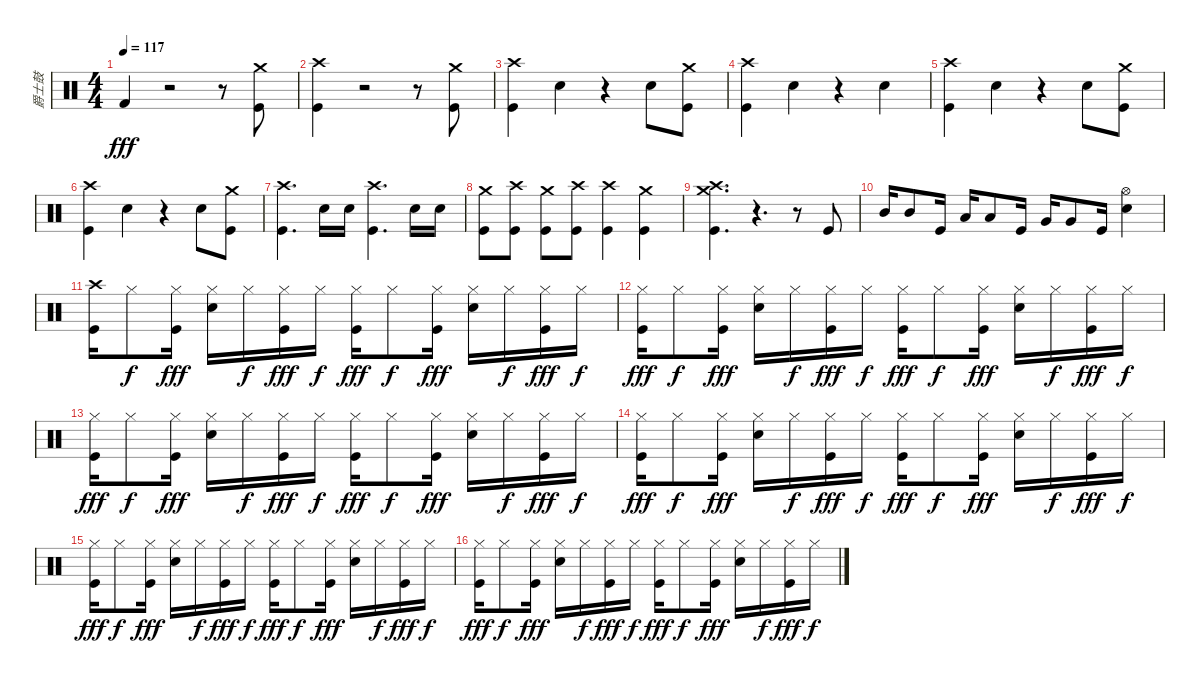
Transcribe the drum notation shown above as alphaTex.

\track ("爵士鼓" "爵士鼓") {instrument percussion}
\staff {score}
\articulation defaults
\ts (4 4)
\tempo 117
\clef neutral
\ks c "Kick (hit) 2".4{dy fff}
r.2 r.8 ("Kick (hit)" "Crash medium (hit)").8 |
("Kick (hit)" "Crash high (hit)").4 r.2 r.8 ("Kick (hit)" "Crash medium (hit)").8 |
("Kick (hit)" "Crash high (hit)").4 "Snare (hit) 2".4 r.4 "Snare (hit) 2".8 ("Kick (hit)" "Crash medium (hit)").8 |
("Kick (hit)" "Crash high (hit)").4 "Snare (hit) 2".4 r.4 "Snare (hit) 2".4 |
("Kick (hit)" "Crash high (hit)").4 "Snare (hit) 2".4 r.4 "Snare (hit) 2".8 ("Kick (hit)" "Crash medium (hit)").8 |
("Kick (hit)" "Crash high (hit)").4 "Snare (hit) 2".4 r.4 "Snare (hit) 2".8 ("Kick (hit)" "Crash medium (hit)").8 |
("Kick (hit)" "Crash high (hit)").4{d} "Snare (hit) 2".16 "Snare (hit) 2".16 ("Kick (hit)" "Crash high (hit)").4{d} "Snare (hit) 2".16 "Snare (hit) 2".16 |
("Kick (hit)" "Crash medium (hit)").8 ("Kick (hit)" "Crash high (hit)").8 ("Kick (hit)" "Crash medium (hit)").8 ("Kick (hit)" "Crash high (hit)").8 ("Kick (hit)" "Crash high (hit)").4 ("Kick (hit)" "Crash medium (hit)").4 |
("Kick (hit)" "Crash high (hit)" "Crash medium (hit)").4{d} r.4{d} r.8 "Kick (hit)".8 |
"Mid Tom (hit)".16 "Mid Tom (hit)".8 "Kick (hit)".16 "Low Tom (hit)".16 "Low Tom (hit)".8 "Kick (hit)".16 "Very Low Tom (hit)".16 "Very Low Tom (hit)".8 "Kick (hit)".16 ("Hi-Hat (open)" "Snare (hit) 2").4 |
("Kick (hit)" "Crash high (hit)").16 "Hi-Hat (closed)".8{dy f} ("Kick (hit)" "Hi-Hat (closed)").16{dy fff} ("Snare (hit) 2" "Hi-Hat (closed)").16 "Hi-Hat (closed)".16{dy f} ("Kick (hit)" "Hi-Hat (closed)").16{dy fff} "Hi-Hat (closed)".16{dy f} ("Kick (hit)" "Hi-Hat (closed)").16{dy fff} "Hi-Hat (closed)".8{dy f} ("Kick (hit)" "Hi-Hat (closed)").16{dy fff} ("Snare (hit) 2" "Hi-Hat (closed)").16 "Hi-Hat (closed)".16{dy f} ("Kick (hit)" "Hi-Hat (closed)").16{dy fff} "Hi-Hat (closed)".16{dy f} |
("Kick (hit)" "Hi-Hat (closed)").16{dy fff} "Hi-Hat (closed)".8{dy f} ("Kick (hit)" "Hi-Hat (closed)").16{dy fff} ("Snare (hit) 2" "Hi-Hat (closed)").16 "Hi-Hat (closed)".16{dy f} ("Kick (hit)" "Hi-Hat (closed)").16{dy fff} "Hi-Hat (closed)".16{dy f} ("Kick (hit)" "Hi-Hat (closed)").16{dy fff} "Hi-Hat (closed)".8{dy f} ("Kick (hit)" "Hi-Hat (closed)").16{dy fff} ("Snare (hit) 2" "Hi-Hat (closed)").16 "Hi-Hat (closed)".16{dy f} ("Kick (hit)" "Hi-Hat (closed)").16{dy fff} "Hi-Hat (closed)".16{dy f} |
("Kick (hit)" "Hi-Hat (closed)").16{dy fff} "Hi-Hat (closed)".8{dy f} ("Kick (hit)" "Hi-Hat (closed)").16{dy fff} ("Snare (hit) 2" "Hi-Hat (closed)").16 "Hi-Hat (closed)".16{dy f} ("Kick (hit)" "Hi-Hat (closed)").16{dy fff} "Hi-Hat (closed)".16{dy f} ("Kick (hit)" "Hi-Hat (closed)").16{dy fff} "Hi-Hat (closed)".8{dy f} ("Kick (hit)" "Hi-Hat (closed)").16{dy fff} ("Snare (hit) 2" "Hi-Hat (closed)").16 "Hi-Hat (closed)".16{dy f} ("Kick (hit)" "Hi-Hat (closed)").16{dy fff} "Hi-Hat (closed)".16{dy f} |
("Kick (hit)" "Hi-Hat (closed)").16{dy fff} "Hi-Hat (closed)".8{dy f} ("Kick (hit)" "Hi-Hat (closed)").16{dy fff} ("Snare (hit) 2" "Hi-Hat (closed)").16 "Hi-Hat (closed)".16{dy f} ("Kick (hit)" "Hi-Hat (closed)").16{dy fff} "Hi-Hat (closed)".16{dy f} ("Kick (hit)" "Hi-Hat (closed)").16{dy fff} "Hi-Hat (closed)".8{dy f} ("Kick (hit)" "Hi-Hat (closed)").16{dy fff} ("Snare (hit) 2" "Hi-Hat (closed)").16 "Hi-Hat (closed)".16{dy f} ("Kick (hit)" "Hi-Hat (closed)").16{dy fff} "Hi-Hat (closed)".16{dy f} |
("Kick (hit)" "Hi-Hat (closed)").16{dy fff} "Hi-Hat (closed)".8{dy f} ("Kick (hit)" "Hi-Hat (closed)").16{dy fff} ("Snare (hit) 2" "Hi-Hat (closed)").16 "Hi-Hat (closed)".16{dy f} ("Kick (hit)" "Hi-Hat (closed)").16{dy fff} "Hi-Hat (closed)".16{dy f} ("Kick (hit)" "Hi-Hat (closed)").16{dy fff} "Hi-Hat (closed)".8{dy f} ("Kick (hit)" "Hi-Hat (closed)").16{dy fff} ("Snare (hit) 2" "Hi-Hat (closed)").16 "Hi-Hat (closed)".16{dy f} ("Kick (hit)" "Hi-Hat (closed)").16{dy fff} "Hi-Hat (closed)".16{dy f} |
("Kick (hit)" "Hi-Hat (closed)").16{dy fff} "Hi-Hat (closed)".8{dy f} ("Kick (hit)" "Hi-Hat (closed)").16{dy fff} ("Snare (hit) 2" "Hi-Hat (closed)").16 "Hi-Hat (closed)".16{dy f} ("Kick (hit)" "Hi-Hat (closed)").16{dy fff} "Hi-Hat (closed)".16{dy f} ("Kick (hit)" "Hi-Hat (closed)").16{dy fff} "Hi-Hat (closed)".8{dy f} ("Kick (hit)" "Hi-Hat (closed)").16{dy fff} ("Snare (hit) 2" "Hi-Hat (closed)").16 "Hi-Hat (closed)".16{dy f} ("Kick (hit)" "Hi-Hat (closed)").16{dy fff} "Hi-Hat (closed)".16{dy f}
